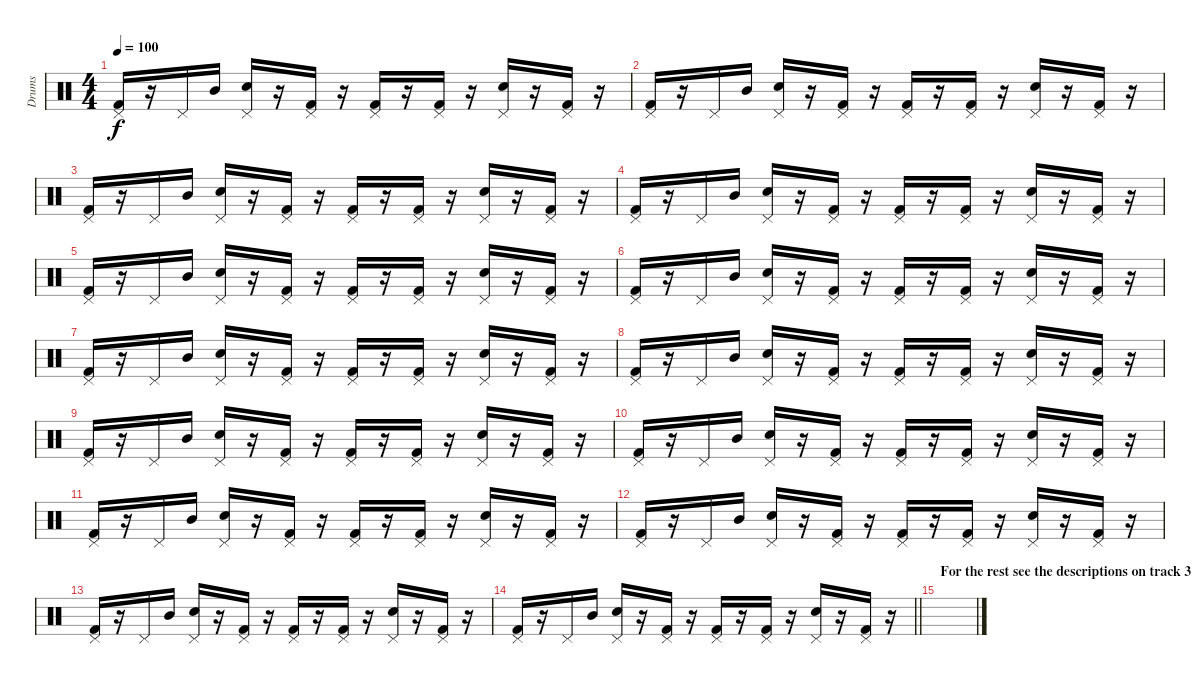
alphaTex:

\track ("Drums" "Drums") {instrument percussion}
\staff {score}
\articulation defaults
\ts (4 4)
\tempo 100
\clef neutral
\ks c
("Kick (hit) 2" "Pedal Hi-Hat (hit)").16{dy f} r.16 "Pedal Hi-Hat (hit)".16 "Mid Tom (hit)".16 ("Pedal Hi-Hat (hit)" "Electric Snare (hit)").16 r.16 ("Kick (hit) 2" "Pedal Hi-Hat (hit)").16 r.16 ("Kick (hit) 2" "Pedal Hi-Hat (hit)").16 r.16 ("Kick (hit) 2" "Pedal Hi-Hat (hit)").16 r.16 ("Pedal Hi-Hat (hit)" "Electric Snare (hit)").16 r.16 ("Kick (hit) 2" "Pedal Hi-Hat (hit)").16 r.16 |
("Kick (hit) 2" "Pedal Hi-Hat (hit)").16 r.16 "Pedal Hi-Hat (hit)".16 "Mid Tom (hit)".16 ("Pedal Hi-Hat (hit)" "Electric Snare (hit)").16 r.16 ("Kick (hit) 2" "Pedal Hi-Hat (hit)").16 r.16 ("Kick (hit) 2" "Pedal Hi-Hat (hit)").16 r.16 ("Kick (hit) 2" "Pedal Hi-Hat (hit)").16 r.16 ("Pedal Hi-Hat (hit)" "Electric Snare (hit)").16 r.16 ("Kick (hit) 2" "Pedal Hi-Hat (hit)").16 r.16 |
("Kick (hit) 2" "Pedal Hi-Hat (hit)").16 r.16 "Pedal Hi-Hat (hit)".16 "Mid Tom (hit)".16 ("Pedal Hi-Hat (hit)" "Electric Snare (hit)").16 r.16 ("Kick (hit) 2" "Pedal Hi-Hat (hit)").16 r.16 ("Kick (hit) 2" "Pedal Hi-Hat (hit)").16 r.16 ("Kick (hit) 2" "Pedal Hi-Hat (hit)").16 r.16 ("Pedal Hi-Hat (hit)" "Electric Snare (hit)").16 r.16 ("Kick (hit) 2" "Pedal Hi-Hat (hit)").16 r.16 |
("Kick (hit) 2" "Pedal Hi-Hat (hit)").16 r.16 "Pedal Hi-Hat (hit)".16 "Mid Tom (hit)".16 ("Pedal Hi-Hat (hit)" "Electric Snare (hit)").16 r.16 ("Kick (hit) 2" "Pedal Hi-Hat (hit)").16 r.16 ("Kick (hit) 2" "Pedal Hi-Hat (hit)").16 r.16 ("Kick (hit) 2" "Pedal Hi-Hat (hit)").16 r.16 ("Pedal Hi-Hat (hit)" "Electric Snare (hit)").16 r.16 ("Kick (hit) 2" "Pedal Hi-Hat (hit)").16 r.16 |
("Kick (hit) 2" "Pedal Hi-Hat (hit)").16 r.16 "Pedal Hi-Hat (hit)".16 "Mid Tom (hit)".16 ("Pedal Hi-Hat (hit)" "Electric Snare (hit)").16 r.16 ("Kick (hit) 2" "Pedal Hi-Hat (hit)").16 r.16 ("Kick (hit) 2" "Pedal Hi-Hat (hit)").16 r.16 ("Kick (hit) 2" "Pedal Hi-Hat (hit)").16 r.16 ("Pedal Hi-Hat (hit)" "Electric Snare (hit)").16 r.16 ("Kick (hit) 2" "Pedal Hi-Hat (hit)").16 r.16 |
("Kick (hit) 2" "Pedal Hi-Hat (hit)").16 r.16 "Pedal Hi-Hat (hit)".16 "Mid Tom (hit)".16 ("Pedal Hi-Hat (hit)" "Electric Snare (hit)").16 r.16 ("Kick (hit) 2" "Pedal Hi-Hat (hit)").16 r.16 ("Kick (hit) 2" "Pedal Hi-Hat (hit)").16 r.16 ("Kick (hit) 2" "Pedal Hi-Hat (hit)").16 r.16 ("Pedal Hi-Hat (hit)" "Electric Snare (hit)").16 r.16 ("Kick (hit) 2" "Pedal Hi-Hat (hit)").16 r.16 |
("Kick (hit) 2" "Pedal Hi-Hat (hit)").16 r.16 "Pedal Hi-Hat (hit)".16 "Mid Tom (hit)".16 ("Pedal Hi-Hat (hit)" "Electric Snare (hit)").16 r.16 ("Kick (hit) 2" "Pedal Hi-Hat (hit)").16 r.16 ("Kick (hit) 2" "Pedal Hi-Hat (hit)").16 r.16 ("Kick (hit) 2" "Pedal Hi-Hat (hit)").16 r.16 ("Pedal Hi-Hat (hit)" "Electric Snare (hit)").16 r.16 ("Kick (hit) 2" "Pedal Hi-Hat (hit)").16 r.16 |
("Kick (hit) 2" "Pedal Hi-Hat (hit)").16 r.16 "Pedal Hi-Hat (hit)".16 "Mid Tom (hit)".16 ("Pedal Hi-Hat (hit)" "Electric Snare (hit)").16 r.16 ("Kick (hit) 2" "Pedal Hi-Hat (hit)").16 r.16 ("Kick (hit) 2" "Pedal Hi-Hat (hit)").16 r.16 ("Kick (hit) 2" "Pedal Hi-Hat (hit)").16 r.16 ("Pedal Hi-Hat (hit)" "Electric Snare (hit)").16 r.16 ("Kick (hit) 2" "Pedal Hi-Hat (hit)").16 r.16 |
("Kick (hit) 2" "Pedal Hi-Hat (hit)").16 r.16 "Pedal Hi-Hat (hit)".16 "Mid Tom (hit)".16 ("Pedal Hi-Hat (hit)" "Electric Snare (hit)").16 r.16 ("Kick (hit) 2" "Pedal Hi-Hat (hit)").16 r.16 ("Kick (hit) 2" "Pedal Hi-Hat (hit)").16 r.16 ("Kick (hit) 2" "Pedal Hi-Hat (hit)").16 r.16 ("Pedal Hi-Hat (hit)" "Electric Snare (hit)").16 r.16 ("Kick (hit) 2" "Pedal Hi-Hat (hit)").16 r.16 |
("Kick (hit) 2" "Pedal Hi-Hat (hit)").16 r.16 "Pedal Hi-Hat (hit)".16 "Mid Tom (hit)".16 ("Pedal Hi-Hat (hit)" "Electric Snare (hit)").16 r.16 ("Kick (hit) 2" "Pedal Hi-Hat (hit)").16 r.16 ("Kick (hit) 2" "Pedal Hi-Hat (hit)").16 r.16 ("Kick (hit) 2" "Pedal Hi-Hat (hit)").16 r.16 ("Pedal Hi-Hat (hit)" "Electric Snare (hit)").16 r.16 ("Kick (hit) 2" "Pedal Hi-Hat (hit)").16 r.16 |
("Kick (hit) 2" "Pedal Hi-Hat (hit)").16 r.16 "Pedal Hi-Hat (hit)".16 "Mid Tom (hit)".16 ("Pedal Hi-Hat (hit)" "Electric Snare (hit)").16 r.16 ("Kick (hit) 2" "Pedal Hi-Hat (hit)").16 r.16 ("Kick (hit) 2" "Pedal Hi-Hat (hit)").16 r.16 ("Kick (hit) 2" "Pedal Hi-Hat (hit)").16 r.16 ("Pedal Hi-Hat (hit)" "Electric Snare (hit)").16 r.16 ("Kick (hit) 2" "Pedal Hi-Hat (hit)").16 r.16 |
("Kick (hit) 2" "Pedal Hi-Hat (hit)").16 r.16 "Pedal Hi-Hat (hit)".16 "Mid Tom (hit)".16 ("Pedal Hi-Hat (hit)" "Electric Snare (hit)").16 r.16 ("Kick (hit) 2" "Pedal Hi-Hat (hit)").16 r.16 ("Kick (hit) 2" "Pedal Hi-Hat (hit)").16 r.16 ("Kick (hit) 2" "Pedal Hi-Hat (hit)").16 r.16 ("Pedal Hi-Hat (hit)" "Electric Snare (hit)").16 r.16 ("Kick (hit) 2" "Pedal Hi-Hat (hit)").16 r.16 |
("Kick (hit) 2" "Pedal Hi-Hat (hit)").16 r.16 "Pedal Hi-Hat (hit)".16 "Mid Tom (hit)".16 ("Pedal Hi-Hat (hit)" "Electric Snare (hit)").16 r.16 ("Kick (hit) 2" "Pedal Hi-Hat (hit)").16 r.16 ("Kick (hit) 2" "Pedal Hi-Hat (hit)").16 r.16 ("Kick (hit) 2" "Pedal Hi-Hat (hit)").16 r.16 ("Pedal Hi-Hat (hit)" "Electric Snare (hit)").16 r.16 ("Kick (hit) 2" "Pedal Hi-Hat (hit)").16 r.16 |
\barLineRight lightlight
("Kick (hit) 2" "Pedal Hi-Hat (hit)").16 r.16 "Pedal Hi-Hat (hit)".16 "Mid Tom (hit)".16 ("Pedal Hi-Hat (hit)" "Electric Snare (hit)").16 r.16 ("Kick (hit) 2" "Pedal Hi-Hat (hit)").16 r.16 ("Kick (hit) 2" "Pedal Hi-Hat (hit)").16 r.16 ("Kick (hit) 2" "Pedal Hi-Hat (hit)").16 r.16 ("Pedal Hi-Hat (hit)" "Electric Snare (hit)").16 r.16 ("Kick (hit) 2" "Pedal Hi-Hat (hit)").16 r.16 |
\section ("" "For the rest see the descriptions on track 3")
